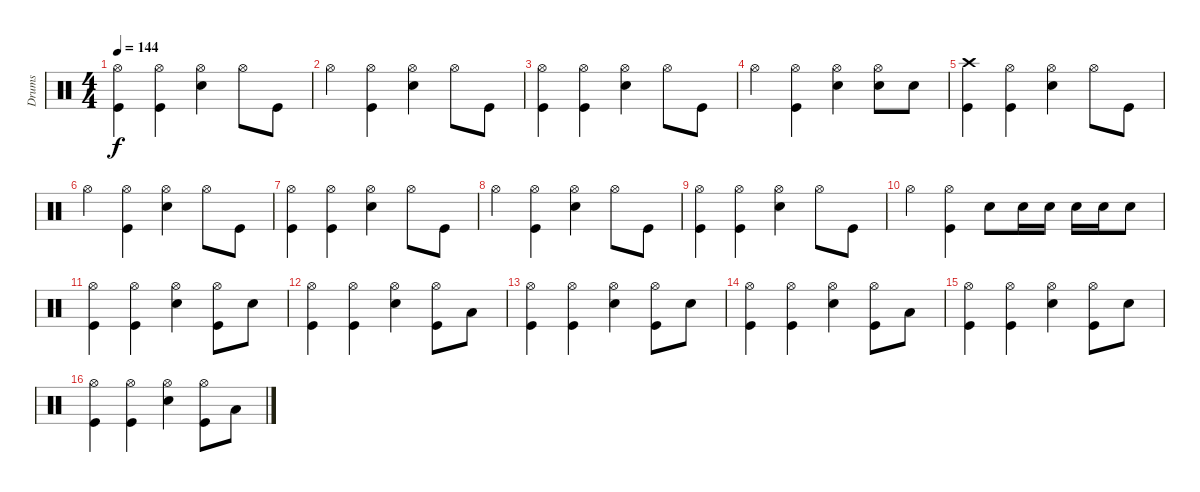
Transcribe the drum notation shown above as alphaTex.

\track ("Drums               " "Drums     ") {instrument percussion}
\staff {score}
\articulation defaults
\ts (4 4)
\tempo 144
\clef neutral
\ks c
("Kick (hit)" "Hi-Hat (open)").4{dy f} ("Kick (hit)" "Hi-Hat (open)").4 ("Snare (hit) 2" "Hi-Hat (open)").4 "Hi-Hat (open)".8 "Kick (hit)".8 |
"Hi-Hat (open)".4 ("Hi-Hat (open)" "Kick (hit)").4 ("Snare (hit) 2" "Hi-Hat (open)").4 "Hi-Hat (open)".8 "Kick (hit)".8 |
("Kick (hit)" "Hi-Hat (open)").4 ("Kick (hit)" "Hi-Hat (open)").4 ("Snare (hit) 2" "Hi-Hat (open)").4 "Hi-Hat (open)".8 "Kick (hit)".8 |
"Hi-Hat (open)".4 ("Hi-Hat (open)" "Kick (hit)").4 ("Snare (hit) 2" "Hi-Hat (open)").4 ("Hi-Hat (open)" "Snare (hit) 2").8 "Snare (hit) 2".8 |
("Kick (hit)" "Crash high (hit)").4 ("Kick (hit)" "Hi-Hat (open)").4 ("Snare (hit) 2" "Hi-Hat (open)").4 "Hi-Hat (open)".8 "Kick (hit)".8 |
"Hi-Hat (open)".4 ("Hi-Hat (open)" "Kick (hit)").4 ("Snare (hit) 2" "Hi-Hat (open)").4 "Hi-Hat (open)".8 "Kick (hit)".8 |
("Kick (hit)" "Hi-Hat (open)").4 ("Kick (hit)" "Hi-Hat (open)").4 ("Snare (hit) 2" "Hi-Hat (open)").4 "Hi-Hat (open)".8 "Kick (hit)".8 |
"Hi-Hat (open)".4 ("Hi-Hat (open)" "Kick (hit)").4 ("Snare (hit) 2" "Hi-Hat (open)").4 "Hi-Hat (open)".8 "Kick (hit)".8 |
("Kick (hit)" "Hi-Hat (open)").4 ("Kick (hit)" "Hi-Hat (open)").4 ("Snare (hit) 2" "Hi-Hat (open)").4 "Hi-Hat (open)".8 "Kick (hit)".8 |
"Hi-Hat (open)".4 ("Hi-Hat (open)" "Kick (hit)").4 "Snare (hit) 2".8 "Snare (hit) 2".16 "Snare (hit) 2".16 "Snare (hit) 2".16 "Snare (hit) 2".16 "Snare (hit) 2".8 |
("Kick (hit)" "Hi-Hat (open)").4 ("Kick (hit)" "Hi-Hat (open)").4 ("Snare (hit) 2" "Hi-Hat (open)").4 ("Hi-Hat (open)" "Kick (hit)").8 "Snare (hit) 2".8 |
("Kick (hit)" "Hi-Hat (open)").4 ("Kick (hit)" "Hi-Hat (open)").4 ("Snare (hit) 2" "Hi-Hat (open)").4 ("Kick (hit)" "Hi-Hat (open)").8 "Low Tom (hit)".8 |
("Kick (hit)" "Hi-Hat (open)").4 ("Kick (hit)" "Hi-Hat (open)").4 ("Snare (hit) 2" "Hi-Hat (open)").4 ("Hi-Hat (open)" "Kick (hit)").8 "Snare (hit) 2".8 |
("Kick (hit)" "Hi-Hat (open)").4 ("Kick (hit)" "Hi-Hat (open)").4 ("Snare (hit) 2" "Hi-Hat (open)").4 ("Kick (hit)" "Hi-Hat (open)").8 "Low Tom (hit)".8 |
("Kick (hit)" "Hi-Hat (open)").4 ("Kick (hit)" "Hi-Hat (open)").4 ("Snare (hit) 2" "Hi-Hat (open)").4 ("Hi-Hat (open)" "Kick (hit)").8 "Snare (hit) 2".8 |
("Kick (hit)" "Hi-Hat (open)").4 ("Kick (hit)" "Hi-Hat (open)").4 ("Snare (hit) 2" "Hi-Hat (open)").4 ("Kick (hit)" "Hi-Hat (open)").8 "Low Tom (hit)".8
